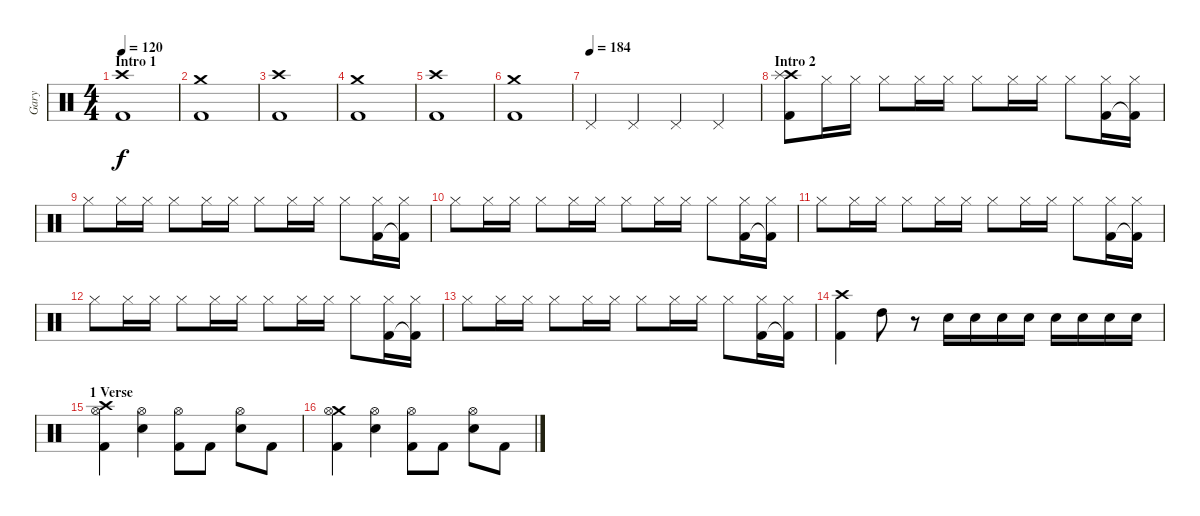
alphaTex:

\track ("Gary" "Gary") {instrument percussion}
\staff {score}
\articulation defaults
\ts (4 4)
\section ("" "Intro 1")
\tempo 120
\clef neutral
\ks c
("Crash high (hit)" "Kick (hit) 2").1{dy f} |
("Crash medium (hit)" "Kick (hit) 2").1 |
("Crash high (hit)" "Kick (hit) 2").1 |
("Crash medium (hit)" "Kick (hit) 2").1 |
("Crash high (hit)" "Kick (hit) 2").1 |
("Crash medium (hit)" "Kick (hit) 2").1 |
\tempo (184)
"Pedal Hi-Hat (hit)".4 "Pedal Hi-Hat (hit)".4 "Pedal Hi-Hat (hit)".4 "Pedal Hi-Hat (hit)".4 |
\section ("" "Intro 2")
("Crash high (hit)" "Splash (hit)" "Kick (hit) 2").8 "Hi-Hat (closed)".16 "Hi-Hat (closed)".16 "Hi-Hat (closed)".8 "Hi-Hat (closed)".16 "Hi-Hat (closed)".16 "Hi-Hat (closed)".8 "Hi-Hat (closed)".16 "Hi-Hat (closed)".16 "Hi-Hat (closed)".8 ("Hi-Hat (closed)" "Kick (hit) 2").16 ("Hi-Hat (closed)" "Kick (hit) 2"{t}).16 |
"Hi-Hat (closed)".8 "Hi-Hat (closed)".16 "Hi-Hat (closed)".16 "Hi-Hat (closed)".8 "Hi-Hat (closed)".16 "Hi-Hat (closed)".16 "Hi-Hat (closed)".8 "Hi-Hat (closed)".16 "Hi-Hat (closed)".16 "Hi-Hat (closed)".8 ("Hi-Hat (closed)" "Kick (hit) 2").16 ("Hi-Hat (closed)" "Kick (hit) 2"{t}).16 |
"Hi-Hat (closed)".8 "Hi-Hat (closed)".16 "Hi-Hat (closed)".16 "Hi-Hat (closed)".8 "Hi-Hat (closed)".16 "Hi-Hat (closed)".16 "Hi-Hat (closed)".8 "Hi-Hat (closed)".16 "Hi-Hat (closed)".16 "Hi-Hat (closed)".8 ("Hi-Hat (closed)" "Kick (hit) 2").16 ("Hi-Hat (closed)" "Kick (hit) 2"{t}).16 |
"Hi-Hat (closed)".8 "Hi-Hat (closed)".16 "Hi-Hat (closed)".16 "Hi-Hat (closed)".8 "Hi-Hat (closed)".16 "Hi-Hat (closed)".16 "Hi-Hat (closed)".8 "Hi-Hat (closed)".16 "Hi-Hat (closed)".16 "Hi-Hat (closed)".8 ("Hi-Hat (closed)" "Kick (hit) 2").16 ("Hi-Hat (closed)" "Kick (hit) 2"{t}).16 |
"Hi-Hat (closed)".8 "Hi-Hat (closed)".16 "Hi-Hat (closed)".16 "Hi-Hat (closed)".8 "Hi-Hat (closed)".16 "Hi-Hat (closed)".16 "Hi-Hat (closed)".8 "Hi-Hat (closed)".16 "Hi-Hat (closed)".16 "Hi-Hat (closed)".8 ("Hi-Hat (closed)" "Kick (hit) 2").16 ("Hi-Hat (closed)" "Kick (hit) 2"{t}).16 |
"Hi-Hat (closed)".8 "Hi-Hat (closed)".16 "Hi-Hat (closed)".16 "Hi-Hat (closed)".8 "Hi-Hat (closed)".16 "Hi-Hat (closed)".16 "Hi-Hat (closed)".8 "Hi-Hat (closed)".16 "Hi-Hat (closed)".16 "Hi-Hat (closed)".8 ("Hi-Hat (closed)" "Kick (hit) 2").16 ("Hi-Hat (closed)" "Kick (hit) 2"{t}).16 |
("Crash high (hit)" "Kick (hit) 2").4 "High Tom (hit)".8 r.8 "Electric Snare (hit)".16 "Electric Snare (hit)".16 "Electric Snare (hit)".16 "Electric Snare (hit)".16 "Electric Snare (hit)".16 "Electric Snare (hit)".16 "Electric Snare (hit)".16 "Electric Snare (hit)".16 |
\section ("" "1 Verse")
("Crash high (hit)" "Hi-Hat (open)" "Kick (hit) 2").4 ("Hi-Hat (open)" "Snare (hit) 2").4 ("Hi-Hat (open)" "Kick (hit) 2").8 "Kick (hit) 2".8 ("Hi-Hat (open)" "Snare (hit) 2").8 "Kick (hit) 2".8 |
("Crash medium (hit)" "Hi-Hat (open)" "Kick (hit) 2").4 ("Hi-Hat (open)" "Snare (hit) 2").4 ("Hi-Hat (open)" "Kick (hit) 2").8 "Kick (hit) 2".8 ("Hi-Hat (open)" "Snare (hit) 2").8 "Kick (hit) 2".8
